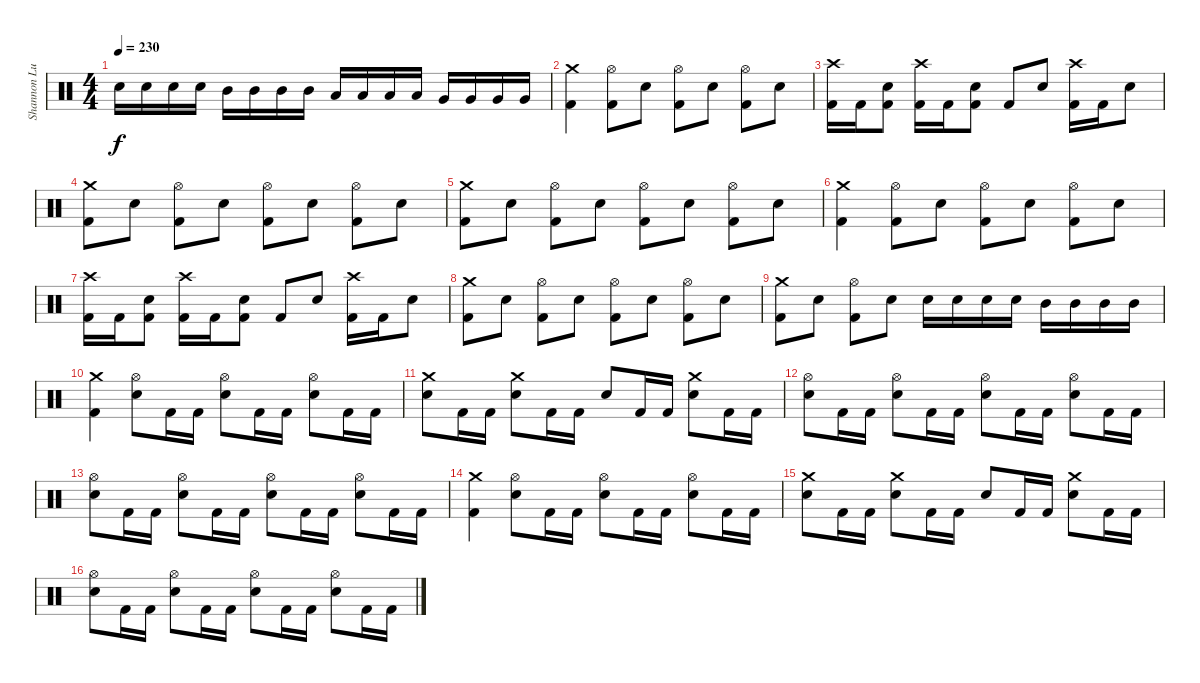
\track ("Shannon Lucas" "Shannon Lu") {instrument percussion}
\staff {score}
\articulation defaults
\ts (4 4)
\tempo 230
\clef neutral
\ks c "Electric Snare (hit)".16{dy f} "Electric Snare (hit)".16 "Electric Snare (hit)".16 "Electric Snare (hit)".16 "Mid Tom (hit)".16 "Mid Tom (hit)".16 "Mid Tom (hit)".16 "Mid Tom (hit)".16 "Low Tom (hit)".16 "Low Tom (hit)".16 "Low Tom (hit)".16 "Low Tom (hit)".16 "Very Low Tom (hit)".16 "Very Low Tom (hit)".16 "Very Low Tom (hit)".16 "Very Low Tom (hit)".16
|
("Crash medium (hit)" "Kick (hit) 2").4 ("Hi-Hat (open)" "Kick (hit) 2").8 "Electric Snare (hit)".8 ("Hi-Hat (open)" "Kick (hit) 2").8 "Electric Snare (hit)".8 ("Hi-Hat (open)" "Kick (hit) 2").8 "Electric Snare (hit)".8 |
("Crash high (hit)" "Kick (hit) 2").16 "Kick (hit) 2".16 ("Electric Snare (hit)" "Kick (hit) 2").8 ("Crash high (hit)" "Kick (hit) 2").16 "Kick (hit) 2".16 ("Electric Snare (hit)" "Kick (hit) 2").8 "Kick (hit) 2".8 "Electric Snare (hit)".8 ("Crash high (hit)" "Kick (hit) 2").16 "Kick (hit) 2".16 "Electric Snare (hit)".8 |
("Crash medium (hit)" "Kick (hit) 2").8 "Electric Snare (hit)".8 ("Hi-Hat (open)" "Kick (hit) 2").8 "Electric Snare (hit)".8 ("Hi-Hat (open)" "Kick (hit) 2").8 "Electric Snare (hit)".8 ("Hi-Hat (open)" "Kick (hit) 2").8 "Electric Snare (hit)".8 |
("Crash medium (hit)" "Kick (hit) 2").8 "Electric Snare (hit)".8 ("Hi-Hat (open)" "Kick (hit) 2").8 "Electric Snare (hit)".8 ("Hi-Hat (open)" "Kick (hit) 2").8 "Electric Snare (hit)".8 ("Hi-Hat (open)" "Kick (hit) 2").8 "Electric Snare (hit)".8 |
("Crash medium (hit)" "Kick (hit) 2").4 ("Hi-Hat (open)" "Kick (hit) 2").8 "Electric Snare (hit)".8 ("Hi-Hat (open)" "Kick (hit) 2").8 "Electric Snare (hit)".8 ("Hi-Hat (open)" "Kick (hit) 2").8 "Electric Snare (hit)".8 |
("Crash high (hit)" "Kick (hit) 2").16 "Kick (hit) 2".16 ("Electric Snare (hit)" "Kick (hit) 2").8 ("Crash high (hit)" "Kick (hit) 2").16 "Kick (hit) 2".16 ("Electric Snare (hit)" "Kick (hit) 2").8 "Kick (hit) 2".8 "Electric Snare (hit)".8 ("Crash high (hit)" "Kick (hit) 2").16 "Kick (hit) 2".16 "Electric Snare (hit)".8 |
("Crash medium (hit)" "Kick (hit) 2").8 "Electric Snare (hit)".8 ("Hi-Hat (open)" "Kick (hit) 2").8 "Electric Snare (hit)".8 ("Hi-Hat (open)" "Kick (hit) 2").8 "Electric Snare (hit)".8 ("Hi-Hat (open)" "Kick (hit) 2").8 "Electric Snare (hit)".8 |
("Crash medium (hit)" "Kick (hit) 2").8 "Electric Snare (hit)".8 ("Hi-Hat (open)" "Kick (hit) 2").8 "Electric Snare (hit)".8 "Electric Snare (hit)".16 "Electric Snare (hit)".16 "Electric Snare (hit)".16 "Electric Snare (hit)".16 "Mid Tom (hit)".16 "Mid Tom (hit)".16 "Mid Tom (hit)".16 "Mid Tom (hit)".16 |
("Crash medium (hit)" "Kick (hit) 2").4 ("Hi-Hat (open)" "Electric Snare (hit)").8 "Kick (hit) 2".16 "Kick (hit) 2".16 ("Hi-Hat (open)" "Electric Snare (hit)").8 "Kick (hit) 2".16 "Kick (hit) 2".16 ("Hi-Hat (open)" "Electric Snare (hit)").8 "Kick (hit) 2".16 "Kick (hit) 2".16 |
("Crash medium (hit)" "Electric Snare (hit)").8 "Kick (hit) 2".16 "Kick (hit) 2".16 ("Crash medium (hit)" "Electric Snare (hit)").8 "Kick (hit) 2".16 "Kick (hit) 2".16 "Electric Snare (hit)".8 "Kick (hit) 2".16 "Kick (hit) 2".16 ("Crash medium (hit)" "Electric Snare (hit)").8 "Kick (hit) 2".16 "Kick (hit) 2".16 |
("Hi-Hat (open)" "Electric Snare (hit)").8 "Kick (hit) 2".16 "Kick (hit) 2".16 ("Hi-Hat (open)" "Electric Snare (hit)").8 "Kick (hit) 2".16 "Kick (hit) 2".16 ("Hi-Hat (open)" "Electric Snare (hit)").8 "Kick (hit) 2".16 "Kick (hit) 2".16 ("Hi-Hat (open)" "Electric Snare (hit)").8 "Kick (hit) 2".16 "Kick (hit) 2".16 |
("Hi-Hat (open)" "Electric Snare (hit)").8 "Kick (hit) 2".16 "Kick (hit) 2".16 ("Hi-Hat (open)" "Electric Snare (hit)").8 "Kick (hit) 2".16 "Kick (hit) 2".16 ("Hi-Hat (open)" "Electric Snare (hit)").8 "Kick (hit) 2".16 "Kick (hit) 2".16 ("Hi-Hat (open)" "Electric Snare (hit)").8 "Kick (hit) 2".16 "Kick (hit) 2".16 |
("Crash medium (hit)" "Kick (hit) 2").4 ("Hi-Hat (open)" "Electric Snare (hit)").8 "Kick (hit) 2".16 "Kick (hit) 2".16 ("Hi-Hat (open)" "Electric Snare (hit)").8 "Kick (hit) 2".16 "Kick (hit) 2".16 ("Hi-Hat (open)" "Electric Snare (hit)").8 "Kick (hit) 2".16 "Kick (hit) 2".16 |
("Crash medium (hit)" "Electric Snare (hit)").8 "Kick (hit) 2".16 "Kick (hit) 2".16 ("Crash medium (hit)" "Electric Snare (hit)").8 "Kick (hit) 2".16 "Kick (hit) 2".16 "Electric Snare (hit)".8 "Kick (hit) 2".16 "Kick (hit) 2".16 ("Crash medium (hit)" "Electric Snare (hit)").8 "Kick (hit) 2".16 "Kick (hit) 2".16 |
("Hi-Hat (open)" "Electric Snare (hit)").8 "Kick (hit) 2".16 "Kick (hit) 2".16 ("Hi-Hat (open)" "Electric Snare (hit)").8 "Kick (hit) 2".16 "Kick (hit) 2".16 ("Hi-Hat (open)" "Electric Snare (hit)").8 "Kick (hit) 2".16 "Kick (hit) 2".16 ("Hi-Hat (open)" "Electric Snare (hit)").8 "Kick (hit) 2".16 "Kick (hit) 2".16
